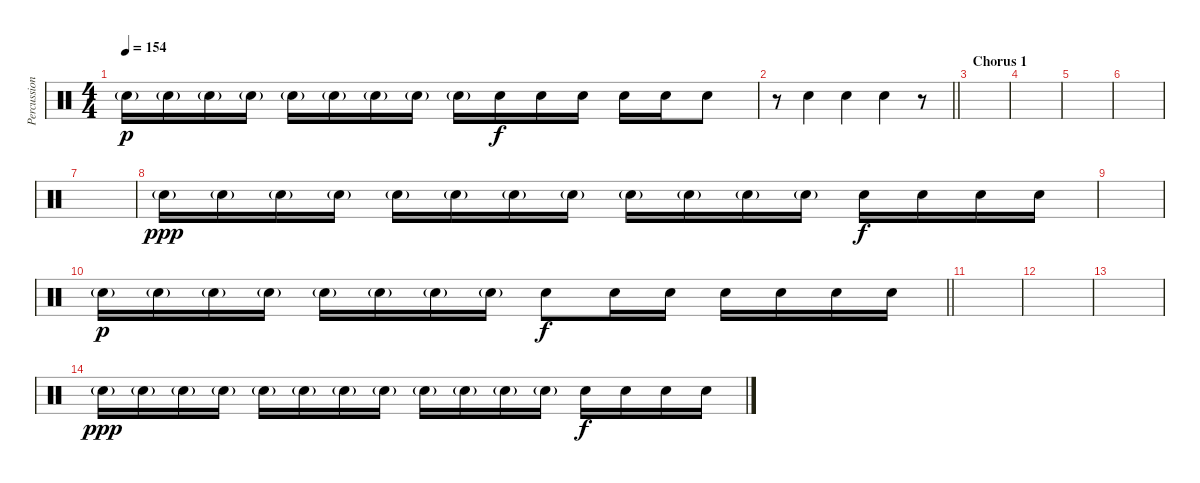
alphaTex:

\track ("Percussion" "Percussion") {instrument percussion}
\staff {score}
\articulation defaults
\ts (4 4)
\tempo 154
\clef neutral
\ks c "Snare (hit) 2"{g}.16{dy p} "Snare (hit) 2"{g}.16 "Snare (hit) 2"{g}.16 "Snare (hit) 2"{g}.16 "Snare (hit) 2"{g}.16 "Snare (hit) 2"{g}.16 "Snare (hit) 2"{g}.16 "Snare (hit) 2"{g}.16 "Snare (hit) 2"{g}.16 "Snare (hit) 2".16{dy f} "Snare (hit) 2".16 "Snare (hit) 2".16 "Snare (hit) 2".16 "Snare (hit) 2".16 "Snare (hit) 2".8
|
\barLineRight lightlight
r.8 "Snare (hit) 2".4 "Snare (hit) 2".4 "Snare (hit) 2".4 r.8 |
\section ("" "Chorus 1")
|
|
|
|
|
"Snare (hit) 2"{g}.16{dy ppp} "Snare (hit) 2"{g}.16 "Snare (hit) 2"{g}.16 "Snare (hit) 2"{g}.16 "Snare (hit) 2"{g}.16 "Snare (hit) 2"{g}.16 "Snare (hit) 2"{g}.16 "Snare (hit) 2"{g}.16 "Snare (hit) 2"{g}.16 "Snare (hit) 2"{g}.16 "Snare (hit) 2"{g}.16 "Snare (hit) 2"{g}.16 "Snare (hit) 2".16{dy f} "Snare (hit) 2".16 "Snare (hit) 2".16 "Snare (hit) 2".16 |
|
\barLineRight lightlight "Snare (hit) 2"{g}.16{dy p} "Snare (hit) 2"{g}.16 "Snare (hit) 2"{g}.16 "Snare (hit) 2"{g}.16 "Snare (hit) 2"{g}.16 "Snare (hit) 2"{g}.16 "Snare (hit) 2"{g}.16 "Snare (hit) 2"{g}.16 "Snare (hit) 2".8{dy f} "Snare (hit) 2".16 "Snare (hit) 2".16 "Snare (hit) 2".16 "Snare (hit) 2".16 "Snare (hit) 2".16 "Snare (hit) 2".16
|
|
|
|
"Snare (hit) 2"{g}.16{dy ppp} "Snare (hit) 2"{g}.16 "Snare (hit) 2"{g}.16 "Snare (hit) 2"{g}.16 "Snare (hit) 2"{g}.16 "Snare (hit) 2"{g}.16 "Snare (hit) 2"{g}.16 "Snare (hit) 2"{g}.16 "Snare (hit) 2"{g}.16 "Snare (hit) 2"{g}.16 "Snare (hit) 2"{g}.16 "Snare (hit) 2"{g}.16 "Snare (hit) 2".16{dy f} "Snare (hit) 2".16 "Snare (hit) 2".16 "Snare (hit) 2".16
